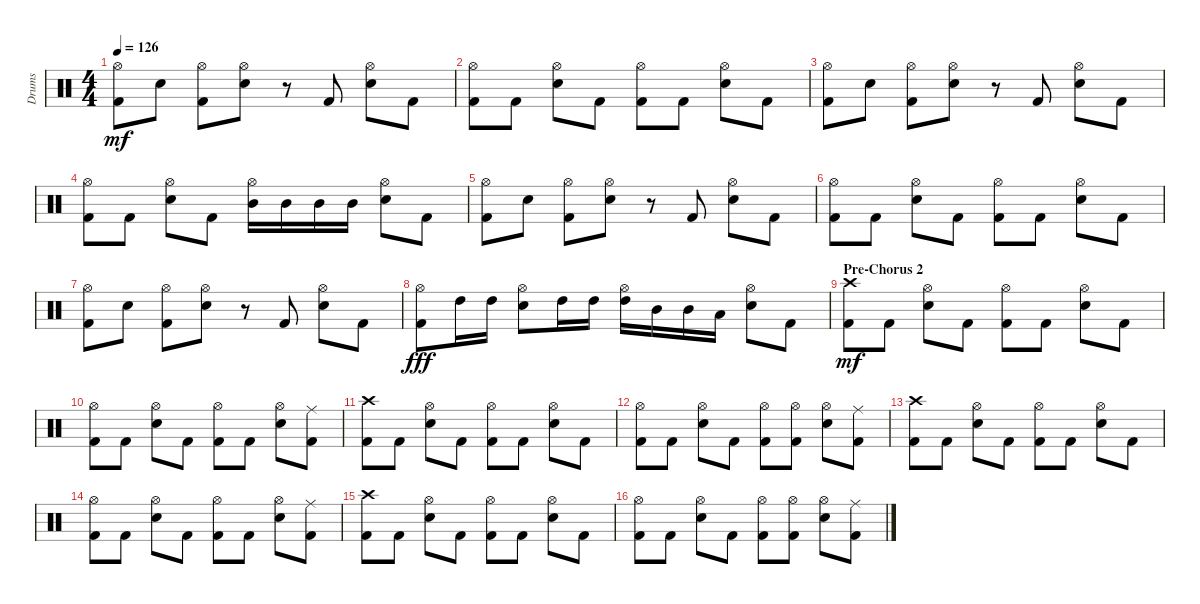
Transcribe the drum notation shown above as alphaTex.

\track ("Drums" "Drums") {instrument percussion}
\staff {score}
\articulation defaults
\ts (4 4)
\tempo 126
\clef neutral
\ks c
("Hi-Hat (open)" "Kick (hit) 2").8{dy mf} "Electric Snare (hit)".8 ("Hi-Hat (open)" "Kick (hit) 2").8 ("Hi-Hat (open)" "Electric Snare (hit)").8 r.8 "Kick (hit) 2".8 ("Hi-Hat (open)" "Electric Snare (hit)").8 "Kick (hit) 2".8 |
("Hi-Hat (open)" "Kick (hit) 2").8 "Kick (hit) 2".8 ("Hi-Hat (open)" "Electric Snare (hit)").8 "Kick (hit) 2".8 ("Hi-Hat (open)" "Kick (hit) 2").8 "Kick (hit) 2".8 ("Hi-Hat (open)" "Electric Snare (hit)").8 "Kick (hit) 2".8 |
("Hi-Hat (open)" "Kick (hit) 2").8 "Electric Snare (hit)".8 ("Hi-Hat (open)" "Kick (hit) 2").8 ("Hi-Hat (open)" "Electric Snare (hit)").8 r.8 "Kick (hit) 2".8 ("Hi-Hat (open)" "Electric Snare (hit)").8 "Kick (hit) 2".8 |
("Hi-Hat (open)" "Kick (hit) 2").8 "Kick (hit) 2".8 ("Hi-Hat (open)" "Electric Snare (hit)").8 "Kick (hit) 2".8 ("Hi-Hat (open)" "Mid Tom (hit)").16 "Mid Tom (hit)".16 "Mid Tom (hit)".16 "Mid Tom (hit)".16 ("Hi-Hat (open)" "Electric Snare (hit)").8 "Kick (hit) 2".8 |
("Hi-Hat (open)" "Kick (hit) 2").8 "Electric Snare (hit)".8 ("Hi-Hat (open)" "Kick (hit) 2").8 ("Hi-Hat (open)" "Electric Snare (hit)").8 r.8 "Kick (hit) 2".8 ("Hi-Hat (open)" "Electric Snare (hit)").8 "Kick (hit) 2".8 |
("Hi-Hat (open)" "Kick (hit) 2").8 "Kick (hit) 2".8 ("Hi-Hat (open)" "Electric Snare (hit)").8 "Kick (hit) 2".8 ("Hi-Hat (open)" "Kick (hit) 2").8 "Kick (hit) 2".8 ("Hi-Hat (open)" "Electric Snare (hit)").8 "Kick (hit) 2".8 |
("Hi-Hat (open)" "Kick (hit) 2").8 "Electric Snare (hit)".8 ("Hi-Hat (open)" "Kick (hit) 2").8 ("Hi-Hat (open)" "Electric Snare (hit)").8 r.8 "Kick (hit) 2".8 ("Hi-Hat (open)" "Electric Snare (hit)").8 "Kick (hit) 2".8 |
("Hi-Hat (open)" "Kick (hit) 2").8{dy fff} "High Tom (hit)".16 "High Tom (hit)".16 ("Hi-Hat (open)" "Electric Snare (hit)").8 "High Tom (hit)".16 "High Tom (hit)".16 ("Hi-Hat (open)" "High Tom (hit)").16 "Mid Tom (hit)".16 "Mid Tom (hit)".16 "Low Tom (hit)".16 ("Hi-Hat (open)" "Electric Snare (hit)").8 "Kick (hit) 2".8 |
\section ("" "Pre-Chorus 2")
("Crash high (hit)" "Kick (hit) 2").8{dy mf} "Kick (hit) 2".8 ("Hi-Hat (open)" "Electric Snare (hit)").8 "Kick (hit) 2".8 ("Hi-Hat (open)" "Kick (hit) 2").8 "Kick (hit) 2".8 ("Hi-Hat (open)" "Electric Snare (hit)").8 "Kick (hit) 2".8 |
("Hi-Hat (open)" "Kick (hit) 2").8 "Kick (hit) 2".8 ("Hi-Hat (open)" "Electric Snare (hit)").8 "Kick (hit) 2".8 ("Hi-Hat (open)" "Kick (hit) 2").8 "Kick (hit) 2".8 ("Hi-Hat (open)" "Electric Snare (hit)").8 ("Ride (middle)" "Kick (hit) 2").8 |
("Crash high (hit)" "Kick (hit) 2").8 "Kick (hit) 2".8 ("Hi-Hat (open)" "Electric Snare (hit)").8 "Kick (hit) 2".8 ("Hi-Hat (open)" "Kick (hit) 2").8 "Kick (hit) 2".8 ("Hi-Hat (open)" "Electric Snare (hit)").8 "Kick (hit) 2".8 |
("Hi-Hat (open)" "Kick (hit) 2").8 "Kick (hit) 2".8 ("Hi-Hat (open)" "Electric Snare (hit)").8 "Kick (hit) 2".8 ("Hi-Hat (open)" "Kick (hit) 2").8 ("Hi-Hat (open)" "Kick (hit) 2").8 ("Hi-Hat (open)" "Electric Snare (hit)").8 ("Ride (middle)" "Kick (hit) 2").8 |
("Crash high (hit)" "Kick (hit) 2").8 "Kick (hit) 2".8 ("Hi-Hat (open)" "Electric Snare (hit)").8 "Kick (hit) 2".8 ("Hi-Hat (open)" "Kick (hit) 2").8 "Kick (hit) 2".8 ("Hi-Hat (open)" "Electric Snare (hit)").8 "Kick (hit) 2".8 |
("Hi-Hat (open)" "Kick (hit) 2").8 "Kick (hit) 2".8 ("Hi-Hat (open)" "Electric Snare (hit)").8 "Kick (hit) 2".8 ("Hi-Hat (open)" "Kick (hit) 2").8 "Kick (hit) 2".8 ("Hi-Hat (open)" "Electric Snare (hit)").8 ("Ride (middle)" "Kick (hit) 2").8 |
("Crash high (hit)" "Kick (hit) 2").8 "Kick (hit) 2".8 ("Hi-Hat (open)" "Electric Snare (hit)").8 "Kick (hit) 2".8 ("Hi-Hat (open)" "Kick (hit) 2").8 "Kick (hit) 2".8 ("Hi-Hat (open)" "Electric Snare (hit)").8 "Kick (hit) 2".8 |
("Hi-Hat (open)" "Kick (hit) 2").8 "Kick (hit) 2".8 ("Hi-Hat (open)" "Electric Snare (hit)").8 "Kick (hit) 2".8 ("Hi-Hat (open)" "Kick (hit) 2").8 ("Hi-Hat (open)" "Kick (hit) 2").8 ("Hi-Hat (open)" "Electric Snare (hit)").8 ("Ride (middle)" "Kick (hit) 2").8
